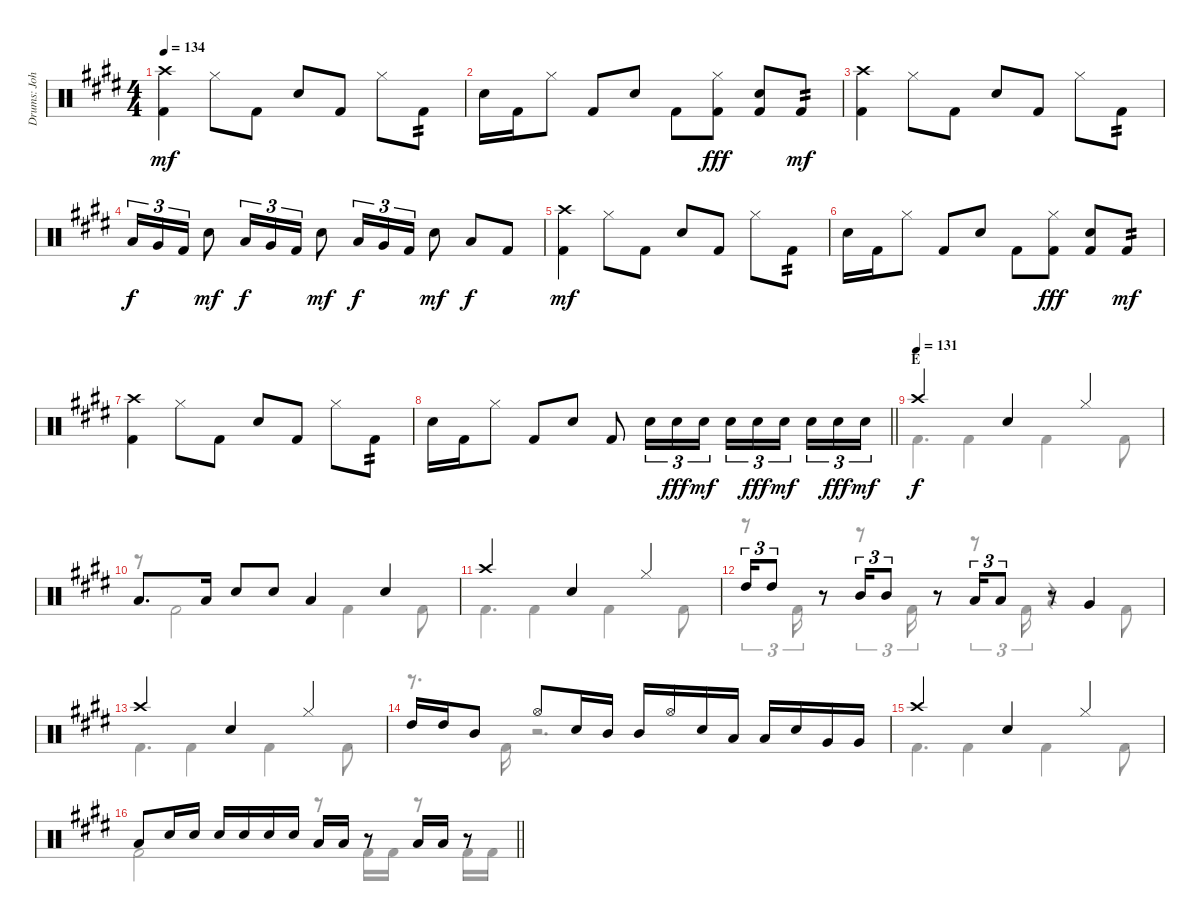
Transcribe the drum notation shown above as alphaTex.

\track ("Drums: John" "Drums: Joh") {instrument percussion}
\staff {score}
\articulation defaults
\voice
\ts (4 4)
\tempo 134
\clef neutral
\ks e
("Crash high (hit)" "Kick (hit) 2").4{dy mf} "Hi-Hat (closed)".8 "Kick (hit) 2".8 "Electric Snare (hit)".8 "Kick (hit) 2".8 "Hi-Hat (closed)".8 "Kick (hit) 2".8{tp 2} |
"Electric Snare (hit)".16 "Kick (hit) 2".16 "Hi-Hat (closed)".8 "Kick (hit) 2".8 "Electric Snare (hit)".8 "Kick (hit) 2".8 ("Hi-Hat (closed)" "Kick (hit) 2").8{dy fff} ("Electric Snare (hit)" "Kick (hit) 2").8 "Kick (hit) 2".8{tp 2 dy mf} |
("Crash high (hit)" "Kick (hit) 2").4 "Hi-Hat (closed)".8 "Kick (hit) 2".8 "Electric Snare (hit)".8 "Kick (hit) 2".8 "Hi-Hat (closed)".8 "Kick (hit) 2".8{tp 2} |
"Low Tom (hit)".16{tu (3 2) dy f} "Very Low Tom (hit)".16{tu (3 2)} "Kick (hit) 2".16{tu (3 2)} "Electric Snare (hit)".8{dy mf} "Low Tom (hit)".16{tu (3 2) dy f} "Very Low Tom (hit)".16{tu (3 2)} "Kick (hit) 2".16{tu (3 2)} "Electric Snare (hit)".8{dy mf} "Low Tom (hit)".16{tu (3 2) dy f} "Very Low Tom (hit)".16{tu (3 2)} "Kick (hit) 2".16{tu (3 2)} "Electric Snare (hit)".8{dy mf} "Low Tom (hit)".8{dy f} "Kick (hit) 2".8 |
("Crash high (hit)" "Kick (hit) 2").4{dy mf} "Hi-Hat (closed)".8 "Kick (hit) 2".8 "Electric Snare (hit)".8 "Kick (hit) 2".8 "Hi-Hat (closed)".8 "Kick (hit) 2".8{tp 2} |
"Electric Snare (hit)".16 "Kick (hit) 2".16 "Hi-Hat (closed)".8 "Kick (hit) 2".8 "Electric Snare (hit)".8 "Kick (hit) 2".8 ("Hi-Hat (closed)" "Kick (hit) 2").8{dy fff} ("Electric Snare (hit)" "Kick (hit) 2").8 "Kick (hit) 2".8{tp 2 dy mf} |
("Crash high (hit)" "Kick (hit) 2").4 "Hi-Hat (closed)".8 "Kick (hit) 2".8 "Electric Snare (hit)".8 "Kick (hit) 2".8 "Hi-Hat (closed)".8 "Kick (hit) 2".8{tp 2} |
\barLineRight lightlight "Electric Snare (hit)".16 "Kick (hit) 2".16 "Hi-Hat (closed)".8 "Kick (hit) 2".8 "Electric Snare (hit)".8 "Kick (hit) 2".8 "Electric Snare (hit)".16{tu (3 2)} "Electric Snare (hit)".16{tu (3 2) dy fff} "Electric Snare (hit)".16{tu (3 2) dy mf} "Electric Snare (hit)".16{tu (3 2)} "Electric Snare (hit)".16{tu (3 2) dy fff} "Electric Snare (hit)".16{tu (3 2) dy mf beam splitsecondary} "Electric Snare (hit)".16{tu (3 2)} "Electric Snare (hit)".16{tu (3 2) dy fff} "Electric Snare (hit)".16{tu (3 2) dy mf}
|
\section ("" "E")
\tempo (131)
"Crash high (hit)".2{dy f} "Electric Snare (hit)".4 "Hi-Hat (closed)".4 |
"Low Tom (hit)".8{d} "Low Tom (hit)".16 "Electric Snare (hit)".8 "Electric Snare (hit)".8 "Low Tom (hit)".4 "Electric Snare (hit)".4 |
"Crash high (hit)".2 "Electric Snare (hit)".4 "Hi-Hat (closed)".4 |
"High Tom (hit)".16{tu (3 2)} "High Tom (hit)".8{tu (3 2)} r.8 "Mid Tom (hit)".16{tu (3 2)} "Mid Tom (hit)".8{tu (3 2)} r.8 "Low Tom (hit)".16{tu (3 2)} "Low Tom (hit)".8{tu (3 2)} r.8 "Very Low Tom (hit)".4 |
"Crash high (hit)".2 "Electric Snare (hit)".4 "Hi-Hat (closed)".4 |
"High Tom (hit)".16 "High Tom (hit)".16 "Mid Tom (hit)".8 "Hi-Hat (open)".8 "Electric Snare (hit)".16 "Mid Tom (hit)".16 "Mid Tom (hit)".16 "Hi-Hat (open)".16 "Electric Snare (hit)".16 "Low Tom (hit)".16 "Low Tom (hit)".16 "Electric Snare (hit)".16 "Very Low Tom (hit)".16 "Very Low Tom (hit)".16 |
"Crash high (hit)".2 "Electric Snare (hit)".4 "Hi-Hat (closed)".4 |
\barLineRight lightlight "Low Tom (hit)".8 "Electric Snare (hit)".16 "Electric Snare (hit)".16 "Electric Snare (hit)".16 "Electric Snare (hit)".16 "Electric Snare (hit)".16 "Electric Snare (hit)".16 "Low Tom (hit)".16 "Low Tom (hit)".16
r.8 "Low Tom (hit)".16 "Low Tom (hit)".16 r.8
\voice
\clef neutral
\ottava regular
\simile none
\ks e
|
|
|
|
|
|
|
\barLineRight lightlight
|
"Kick (hit) 2".4{d} "Kick (hit) 2".4 "Kick (hit) 2".4 "Kick (hit) 2".8 |
r.8 "Kick (hit) 2".2 "Kick (hit) 2".4 "Kick (hit) 2".8 |
"Kick (hit) 2".4{d} "Kick (hit) 2".4 "Kick (hit) 2".4 "Kick (hit) 2".8 |
r.8{tu (3 2)} "Kick (hit) 2".16{tu (3 2)} r.8 r.8{tu (3 2)} "Kick (hit) 2".16{tu (3 2)} r.8 r.8{tu (3 2)} "Kick (hit) 2".16{tu (3 2)} r.4 "Kick (hit) 2".8 |
"Kick (hit) 2".4{d} "Kick (hit) 2".4 "Kick (hit) 2".4 "Kick (hit) 2".8 |
r.8{d} "Kick (hit) 2".16 r.2{d} |
"Kick (hit) 2".4{d} "Kick (hit) 2".4 "Kick (hit) 2".4 "Kick (hit) 2".8 |
\barLineRight lightlight "Kick (hit) 2".2
r.8 "Kick (hit) 2".16 "Kick (hit) 2".16 r.8 "Kick (hit) 2".16 "Kick (hit) 2".16
